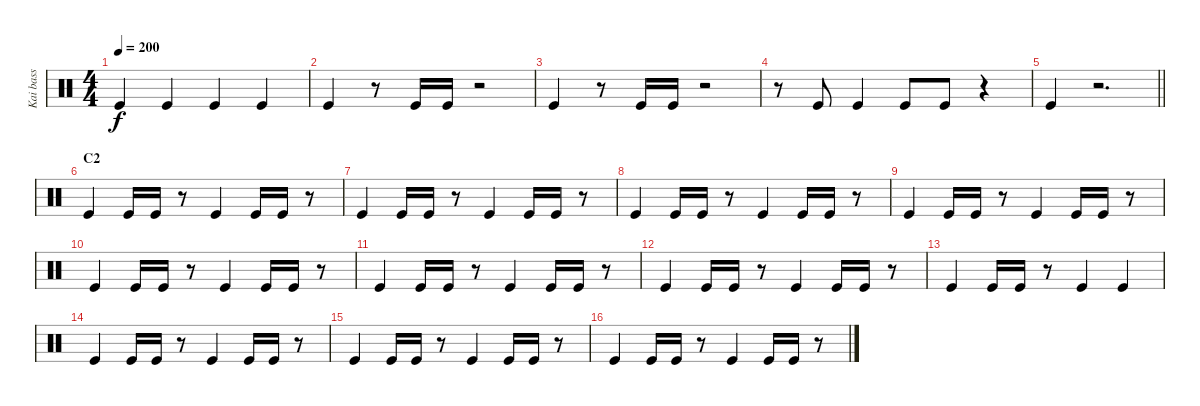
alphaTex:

\track ("Kai bass" "Kai bass") {instrument percussion}
\staff {score}
\articulation defaults
\ts (4 4)
\tempo 200
\clef neutral
\ks c "Kick (hit)".4{dy f} "Kick (hit)".4 "Kick (hit)".4 "Kick (hit)".4
|
"Kick (hit)".4 r.8 "Kick (hit)".16 "Kick (hit)".16 r.2 |
"Kick (hit)".4 r.8 "Kick (hit)".16 "Kick (hit)".16 r.2 |
r.8 "Kick (hit)".8 "Kick (hit)".4 "Kick (hit)".8 "Kick (hit)".8 r.4 |
\barLineRight lightlight "Kick (hit)".4
r.2{d} |
\section ("" "C2")
"Kick (hit)".4 "Kick (hit)".16 "Kick (hit)".16 r.8 "Kick (hit)".4 "Kick (hit)".16 "Kick (hit)".16 r.8 |
"Kick (hit)".4 "Kick (hit)".16 "Kick (hit)".16 r.8 "Kick (hit)".4 "Kick (hit)".16 "Kick (hit)".16 r.8 |
"Kick (hit)".4 "Kick (hit)".16 "Kick (hit)".16 r.8 "Kick (hit)".4 "Kick (hit)".16 "Kick (hit)".16 r.8 |
"Kick (hit)".4 "Kick (hit)".16 "Kick (hit)".16 r.8 "Kick (hit)".4 "Kick (hit)".16 "Kick (hit)".16 r.8 |
"Kick (hit)".4 "Kick (hit)".16 "Kick (hit)".16 r.8 "Kick (hit)".4 "Kick (hit)".16 "Kick (hit)".16 r.8 |
"Kick (hit)".4 "Kick (hit)".16 "Kick (hit)".16 r.8 "Kick (hit)".4 "Kick (hit)".16 "Kick (hit)".16 r.8 |
"Kick (hit)".4 "Kick (hit)".16 "Kick (hit)".16 r.8 "Kick (hit)".4 "Kick (hit)".16 "Kick (hit)".16 r.8 |
"Kick (hit)".4 "Kick (hit)".16 "Kick (hit)".16 r.8 "Kick (hit)".4 "Kick (hit)".4 |
"Kick (hit)".4 "Kick (hit)".16 "Kick (hit)".16 r.8 "Kick (hit)".4 "Kick (hit)".16 "Kick (hit)".16 r.8 |
"Kick (hit)".4 "Kick (hit)".16 "Kick (hit)".16 r.8 "Kick (hit)".4 "Kick (hit)".16 "Kick (hit)".16 r.8 |
"Kick (hit)".4 "Kick (hit)".16 "Kick (hit)".16 r.8 "Kick (hit)".4 "Kick (hit)".16 "Kick (hit)".16 r.8
